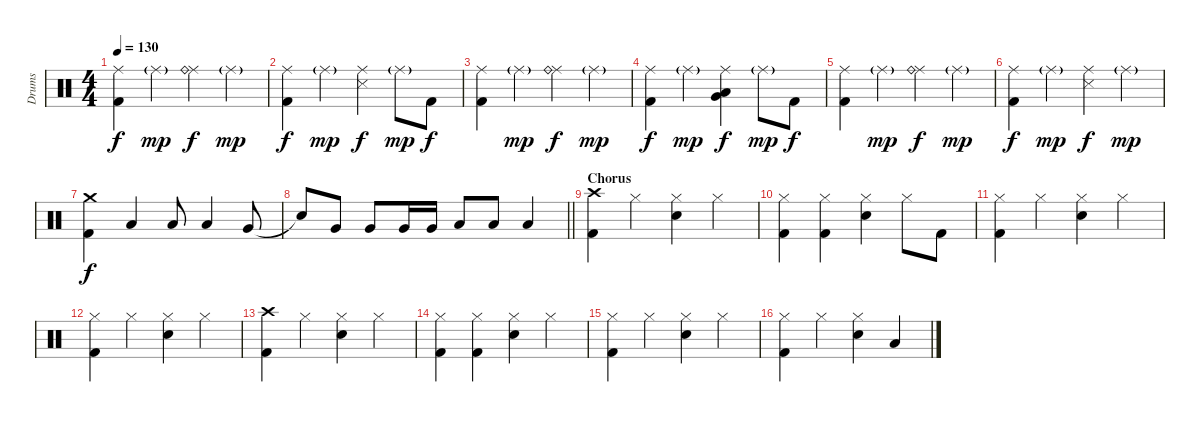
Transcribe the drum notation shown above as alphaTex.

\track ("Drums" "Drums") {instrument percussion}
\staff {score}
\articulation defaults
\ts (4 4)
\tempo 130
\clef neutral
\ks c
("Ride (middle)" "Kick (hit) 2").4{dy f} "Ride (middle)"{g}.4{dy mp} ("Ride (middle)" "Ride (bell)").4{dy f} "Ride (middle)"{g}.4{dy mp} |
("Ride (middle)" "Kick (hit) 2").4{dy f} "Ride (middle)"{g}.4{dy mp} ("Ride (middle)" "Snare (side stick) 3").4{dy f} "Ride (middle)"{g}.8{dy mp} "Kick (hit) 2".8{dy f} |
("Ride (middle)" "Kick (hit) 2").4 "Ride (middle)"{g}.4{dy mp} ("Ride (middle)" "Ride (bell)").4{dy f} "Ride (middle)"{g}.4{dy mp} |
("Ride (middle)" "Kick (hit) 2").4{dy f} "Ride (middle)"{g}.4{dy mp} ("Ride (middle)" "Very Low Tom (hit)" "Low Floor Tom (hit)").4{dy f} "Ride (middle)"{g}.8{dy mp} "Kick (hit) 2".8{dy f} |
("Ride (middle)" "Kick (hit) 2").4 "Ride (middle)"{g}.4{dy mp} ("Ride (middle)" "Ride (bell)").4{dy f} "Ride (middle)"{g}.4{dy mp} |
("Ride (middle)" "Kick (hit) 2").4{dy f} "Ride (middle)"{g}.4{dy mp} ("Ride (middle)" "Snare (side stick) 3").4{dy f} "Ride (middle)"{g}.4{dy mp} |
("Crash medium (hit)" "Kick (hit) 2").4{dy f} "Low Tom (hit)".4 "Low Tom (hit)".8 "Low Tom (hit)".4 "Very Low Tom (hit)".8 |
\barLineRight lightlight "Snare (hit)"{t}.8 "Very Low Tom (hit)".8 "Very Low Tom (hit)".8 "Very Low Tom (hit)".16 "Very Low Tom (hit)".16 "Low Floor Tom (hit)".8 "Low Floor Tom (hit)".8 "Low Floor Tom (hit)".4
|
\section ("" "Chorus")
("Crash high (hit)" "Kick (hit) 2").4 "Hi-Hat (closed)".4 ("Hi-Hat (closed)" "Electric Snare (hit)").4 "Hi-Hat (closed)".4 |
("Hi-Hat (closed)" "Kick (hit) 2").4 ("Hi-Hat (closed)" "Kick (hit) 2").4 ("Hi-Hat (closed)" "Electric Snare (hit)").4 "Hi-Hat (closed)".8 "Kick (hit) 2".8 |
("Hi-Hat (closed)" "Kick (hit) 2").4 "Hi-Hat (closed)".4 ("Hi-Hat (closed)" "Electric Snare (hit)").4 "Hi-Hat (closed)".4 |
("Hi-Hat (closed)" "Kick (hit) 2").4 "Hi-Hat (closed)".4 ("Hi-Hat (closed)" "Electric Snare (hit)").4 "Hi-Hat (closed)".4 |
("Crash high (hit)" "Kick (hit) 2").4 "Hi-Hat (closed)".4 ("Hi-Hat (closed)" "Electric Snare (hit)").4 "Hi-Hat (closed)".4 |
("Hi-Hat (closed)" "Kick (hit) 2").4 ("Hi-Hat (closed)" "Kick (hit) 2").4 ("Hi-Hat (closed)" "Electric Snare (hit)").4 "Hi-Hat (closed)".4 |
("Hi-Hat (closed)" "Kick (hit) 2").4 "Hi-Hat (closed)".4 ("Hi-Hat (closed)" "Electric Snare (hit)").4 "Hi-Hat (closed)".4 |
("Hi-Hat (closed)" "Kick (hit) 2").4 "Hi-Hat (closed)".4 ("Hi-Hat (closed)" "Electric Snare (hit)").4 "Low Tom (hit)".4
